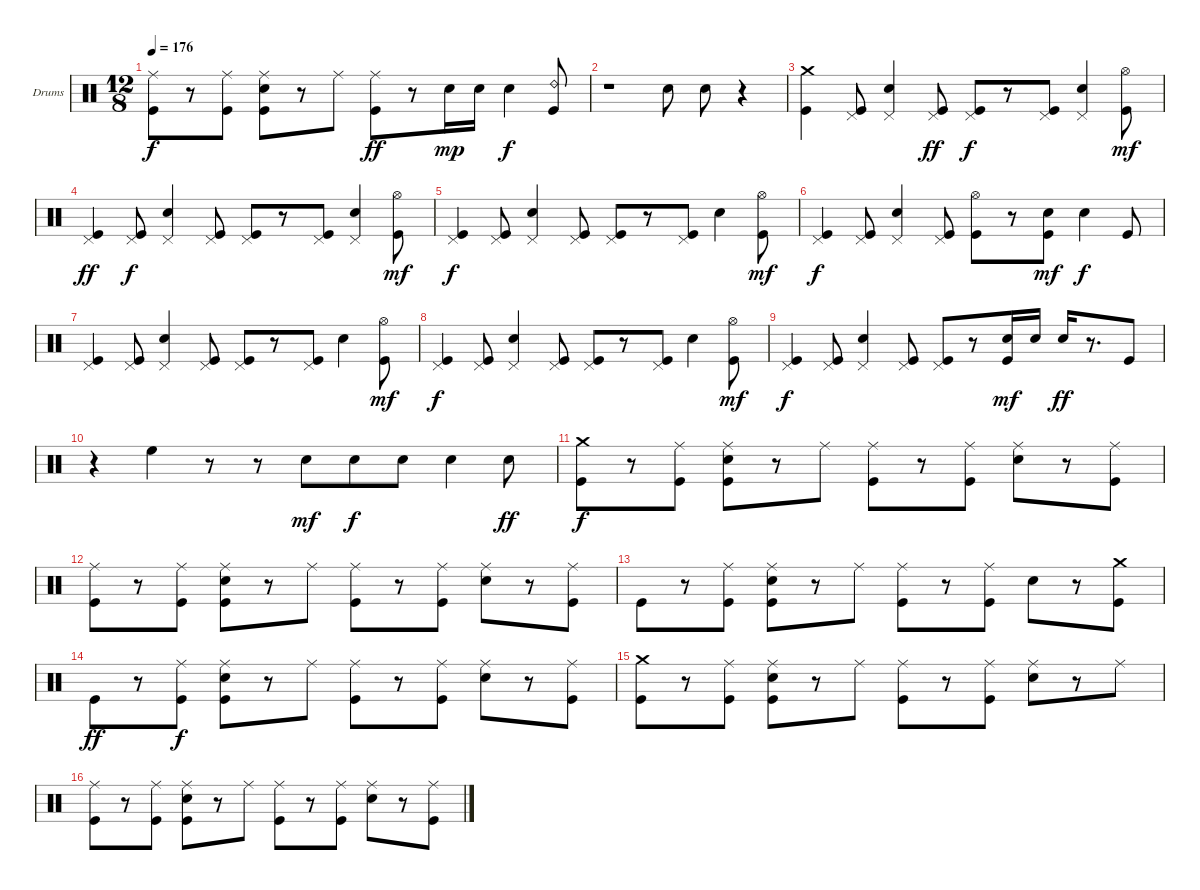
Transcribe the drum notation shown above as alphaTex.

\defaultSystemsLayout 4
\bracketExtendMode groupsimilarinstruments
\firstSystemTrackNameOrientation horizontal
\otherSystemsTrackNameOrientation horizontal
\track ("Drumkit" "Drums") {instrument percussion}
\staff {score}
\articulation defaults
\ts (12 8)
\tempo 176
\clef neutral
\scale
0.333333
\ks c
("Ride (middle)" "Kick (hit)").8{dy f} r.8 ("Ride (middle)" "Kick (hit)").8 ("Ride (middle)" "Snare (hit) 2" "Kick (hit)").8 r.8 "Ride (middle)".8 ("Ride (middle)" "Kick (hit)").8{dy ff} r.8 "Snare (hit) 2".16{dy mp} "Snare (hit) 2".16 "Snare (hit) 2".4{dy f} ("Ride (bell) 2" "Kick (hit)").8 |
\scale
0.333333 r.1 "Snare (hit) 2".8 "Snare (hit) 2".8 r.4 |
\scale
0.333333 ("Crash medium (hit)" "Kick (hit)").4 ("Pedal Hi-Hat (hit)" "Kick (hit)").8 ("Snare (hit) 2" "Pedal Hi-Hat (hit)").4 ("Pedal Hi-Hat (hit)" "Kick (hit)").8{dy ff} ("Pedal Hi-Hat (hit)" "Kick (hit)").8{dy f} r.8 ("Pedal Hi-Hat (hit)" "Kick (hit)").8 ("Snare (hit) 2" "Pedal Hi-Hat (hit)").4 ("Hi-Hat (open)" "Kick (hit)").8{dy mf} |
\scale
0.333333 ("Pedal Hi-Hat (hit)" "Kick (hit)").4{dy ff} ("Pedal Hi-Hat (hit)" "Kick (hit)").8{dy f} ("Snare (hit) 2" "Pedal Hi-Hat (hit)").4 ("Pedal Hi-Hat (hit)" "Kick (hit)").8 ("Pedal Hi-Hat (hit)" "Kick (hit)").8 r.8 ("Pedal Hi-Hat (hit)" "Kick (hit)").8 ("Snare (hit) 2" "Pedal Hi-Hat (hit)").4 ("Hi-Hat (open)" "Kick (hit)").8{dy mf} |
\scale
0.333333 ("Pedal Hi-Hat (hit)" "Kick (hit)").4{dy f} ("Pedal Hi-Hat (hit)" "Kick (hit)").8 ("Snare (hit) 2" "Pedal Hi-Hat (hit)").4 ("Pedal Hi-Hat (hit)" "Kick (hit)").8 ("Pedal Hi-Hat (hit)" "Kick (hit)").8 r.8 ("Pedal Hi-Hat (hit)" "Kick (hit)").8 "Snare (hit) 2".4 ("Hi-Hat (open)" "Kick (hit)").8{dy mf} |
\scale
0.333333 ("Pedal Hi-Hat (hit)" "Kick (hit)").4{dy f} ("Pedal Hi-Hat (hit)" "Kick (hit)").8 ("Snare (hit) 2" "Pedal Hi-Hat (hit)").4 ("Pedal Hi-Hat (hit)" "Kick (hit)").8 ("Hi-Hat (open)" "Kick (hit)").8 r.8 ("Snare (hit) 2" "Kick (hit)").8{dy mf} "Snare (hit) 2".4{dy f} "Kick (hit)".8 |
\scale
0.333333 ("Pedal Hi-Hat (hit)" "Kick (hit)").4 ("Pedal Hi-Hat (hit)" "Kick (hit)").8 ("Snare (hit) 2" "Pedal Hi-Hat (hit)").4 ("Pedal Hi-Hat (hit)" "Kick (hit)").8 ("Pedal Hi-Hat (hit)" "Kick (hit)").8 r.8 ("Pedal Hi-Hat (hit)" "Kick (hit)").8 "Snare (hit) 2".4 ("Hi-Hat (open)" "Kick (hit)").8{dy mf} |
\scale
0.333333 ("Pedal Hi-Hat (hit)" "Kick (hit)").4{dy f} ("Pedal Hi-Hat (hit)" "Kick (hit)").8 ("Snare (hit) 2" "Pedal Hi-Hat (hit)").4 ("Pedal Hi-Hat (hit)" "Kick (hit)").8 ("Pedal Hi-Hat (hit)" "Kick (hit)").8 r.8 ("Pedal Hi-Hat (hit)" "Kick (hit)").8 "Snare (hit) 2".4 ("Hi-Hat (open)" "Kick (hit)").8{dy mf} |
\scale
0.333333 ("Pedal Hi-Hat (hit)" "Kick (hit)").4{dy f} ("Pedal Hi-Hat (hit)" "Kick (hit)").8 ("Snare (hit) 2" "Pedal Hi-Hat (hit)").4 ("Pedal Hi-Hat (hit)" "Kick (hit)").8 ("Pedal Hi-Hat (hit)" "Kick (hit)").8 r.8 ("Snare (hit) 2" "Kick (hit)").16{dy mf} "Snare (hit) 2".16 "Snare (hit) 2".16{dy ff} r.8{d} "Kick (hit)".8 |
\scale
0.333333 r.4 "High Floor Tom (hit)".4 r.8 r.8 "Snare (hit) 2".8{dy mf} "Snare (hit) 2".8{dy f} "Snare (hit) 2".8 "Snare (hit) 2".4 "Snare (hit) 2".8{dy ff} |
\scale
0.333333 ("Crash medium (hit)" "Kick (hit)").8{dy f} r.8 ("Ride (middle)" "Kick (hit)").8 ("Ride (middle)" "Snare (hit) 2" "Kick (hit)").8 r.8 "Ride (middle)".8 ("Ride (middle)" "Kick (hit)").8 r.8 ("Ride (middle)" "Kick (hit)").8 ("Ride (middle)" "Snare (hit) 2").8 r.8 ("Ride (middle)" "Kick (hit)").8 |
\scale
0.333333 ("Ride (middle)" "Kick (hit)").8 r.8 ("Ride (middle)" "Kick (hit)").8 ("Ride (middle)" "Snare (hit) 2" "Kick (hit)").8 r.8 "Ride (middle)".8 ("Ride (middle)" "Kick (hit)").8 r.8 ("Ride (middle)" "Kick (hit)").8 ("Ride (middle)" "Snare (hit) 2").8 r.8 ("Ride (middle)" "Kick (hit)").8 |
\scale
0.333333 "Kick (hit)".8 r.8 ("Ride (middle)" "Kick (hit)").8 ("Ride (middle)" "Snare (hit) 2" "Kick (hit)").8 r.8 "Ride (middle)".8 ("Ride (middle)" "Kick (hit)").8 r.8 ("Ride (middle)" "Kick (hit)").8 "Snare (hit) 2".8 r.8 ("Crash medium (hit)" "Kick (hit)").8 |
\scale
0.333333 "Kick (hit)".8{dy ff} r.8 ("Ride (middle)" "Kick (hit)").8{dy f} ("Ride (middle)" "Snare (hit) 2" "Kick (hit)").8 r.8 "Ride (middle)".8 ("Ride (middle)" "Kick (hit)").8 r.8 ("Ride (middle)" "Kick (hit)").8 ("Ride (middle)" "Snare (hit) 2").8 r.8 ("Ride (middle)" "Kick (hit)").8 |
\scale
0.333333 ("Crash medium (hit)" "Kick (hit)").8 r.8 ("Ride (middle)" "Kick (hit)").8 ("Ride (middle)" "Snare (hit) 2" "Kick (hit)").8 r.8 "Ride (middle)".8 ("Ride (middle)" "Kick (hit)").8 r.8 ("Ride (middle)" "Kick (hit)").8 ("Ride (middle)" "Snare (hit) 2").8 r.8 "Ride (middle)".8 |
\scale
0.333333 ("Ride (middle)" "Kick (hit)").8 r.8 ("Ride (middle)" "Kick (hit)").8 ("Ride (middle)" "Snare (hit) 2" "Kick (hit)").8 r.8 "Ride (middle)".8 ("Ride (middle)" "Kick (hit)").8 r.8 ("Ride (middle)" "Kick (hit)").8 ("Ride (middle)" "Snare (hit) 2").8 r.8 ("Ride (middle)" "Kick (hit)").8
